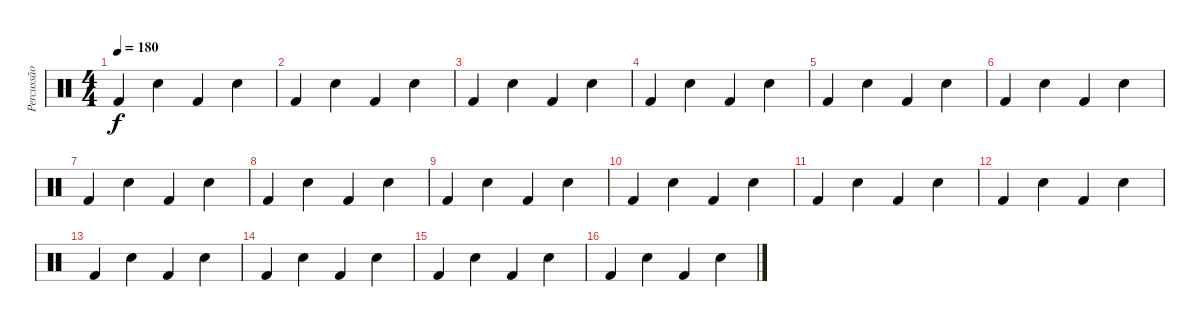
\track ("Percussão" "Percussão") {instrument percussion}
\staff {score}
\articulation defaults
\ts (4 4)
\tempo 180
\clef neutral
\ks c "Kick (hit) 2".4{dy f} "Snare (hit) 2".4 "Kick (hit) 2".4 "Snare (hit) 2".4
|
"Kick (hit) 2".4 "Snare (hit) 2".4 "Kick (hit) 2".4 "Snare (hit) 2".4 |
"Kick (hit) 2".4 "Snare (hit) 2".4 "Kick (hit) 2".4 "Snare (hit) 2".4 |
"Kick (hit) 2".4 "Snare (hit) 2".4 "Kick (hit) 2".4 "Snare (hit) 2".4 |
"Kick (hit) 2".4 "Snare (hit) 2".4 "Kick (hit) 2".4 "Snare (hit) 2".4 |
"Kick (hit) 2".4 "Snare (hit) 2".4 "Kick (hit) 2".4 "Snare (hit) 2".4 |
"Kick (hit) 2".4 "Snare (hit) 2".4 "Kick (hit) 2".4 "Snare (hit) 2".4 |
"Kick (hit) 2".4 "Snare (hit) 2".4 "Kick (hit) 2".4 "Snare (hit) 2".4 |
"Kick (hit) 2".4 "Snare (hit) 2".4 "Kick (hit) 2".4 "Snare (hit) 2".4 |
"Kick (hit) 2".4 "Snare (hit) 2".4 "Kick (hit) 2".4 "Snare (hit) 2".4 |
"Kick (hit) 2".4 "Snare (hit) 2".4 "Kick (hit) 2".4 "Snare (hit) 2".4 |
"Kick (hit) 2".4 "Snare (hit) 2".4 "Kick (hit) 2".4 "Snare (hit) 2".4 |
"Kick (hit) 2".4 "Snare (hit) 2".4 "Kick (hit) 2".4 "Snare (hit) 2".4 |
"Kick (hit) 2".4 "Snare (hit) 2".4 "Kick (hit) 2".4 "Snare (hit) 2".4 |
"Kick (hit) 2".4 "Snare (hit) 2".4 "Kick (hit) 2".4 "Snare (hit) 2".4 |
"Kick (hit) 2".4 "Snare (hit) 2".4 "Kick (hit) 2".4 "Snare (hit) 2".4
